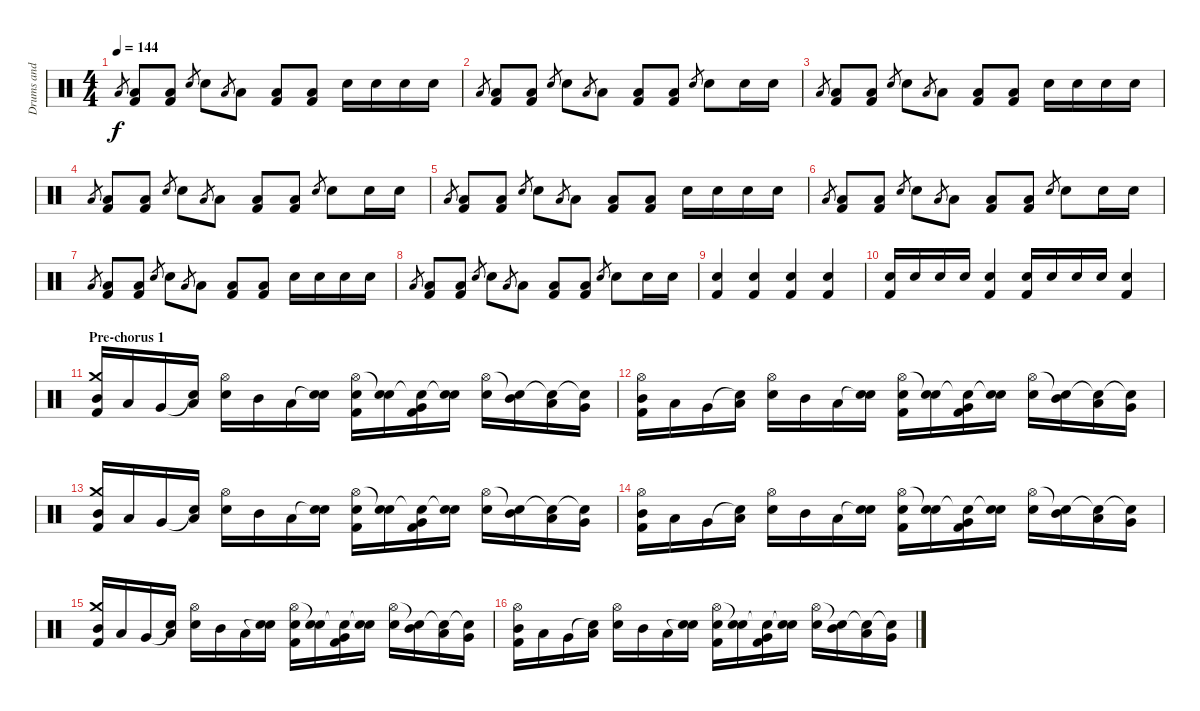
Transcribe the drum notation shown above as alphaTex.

\track ("Drums and Percussion" "Drums and ") {instrument percussion}
\staff {score}
\articulation defaults
\ts (4 4)
\tempo 144
\clef neutral
\ks c "Low Floor Tom (hit)".8{gr dy f}
("Low Floor Tom (hit)" "Kick (hit) 2").8 ("Low Floor Tom (hit)" "Kick (hit) 2").8 "Electric Snare (hit)".8{gr} "Electric Snare (hit)".8 "Low Floor Tom (hit)".8{gr} "Low Floor Tom (hit)".8 ("Low Floor Tom (hit)" "Kick (hit) 2").8 ("Low Floor Tom (hit)" "Kick (hit) 2").8 "Electric Snare (hit)".16 "Electric Snare (hit)".16 "Electric Snare (hit)".16 "Electric Snare (hit)".16 |
"Low Floor Tom (hit)".8{gr} ("Low Floor Tom (hit)" "Kick (hit) 2").8 ("Low Floor Tom (hit)" "Kick (hit) 2").8 "Electric Snare (hit)".8{gr} "Electric Snare (hit)".8 "Low Floor Tom (hit)".8{gr} "Low Floor Tom (hit)".8 ("Low Floor Tom (hit)" "Kick (hit) 2").8 ("Low Floor Tom (hit)" "Kick (hit) 2").8 "Electric Snare (hit)".8{gr} "Electric Snare (hit)".8 "Electric Snare (hit)".16 "Electric Snare (hit)".16 |
"Low Floor Tom (hit)".8{gr} ("Low Floor Tom (hit)" "Kick (hit) 2").8 ("Low Floor Tom (hit)" "Kick (hit) 2").8 "Electric Snare (hit)".8{gr} "Electric Snare (hit)".8 "Low Floor Tom (hit)".8{gr} "Low Floor Tom (hit)".8 ("Low Floor Tom (hit)" "Kick (hit) 2").8 ("Low Floor Tom (hit)" "Kick (hit) 2").8 "Electric Snare (hit)".16 "Electric Snare (hit)".16 "Electric Snare (hit)".16 "Electric Snare (hit)".16 |
"Low Floor Tom (hit)".8{gr} ("Low Floor Tom (hit)" "Kick (hit) 2").8 ("Low Floor Tom (hit)" "Kick (hit) 2").8 "Electric Snare (hit)".8{gr} "Electric Snare (hit)".8 "Low Floor Tom (hit)".8{gr} "Low Floor Tom (hit)".8 ("Low Floor Tom (hit)" "Kick (hit) 2").8 ("Low Floor Tom (hit)" "Kick (hit) 2").8 "Electric Snare (hit)".8{gr} "Electric Snare (hit)".8 "Electric Snare (hit)".16 "Electric Snare (hit)".16 |
"Low Floor Tom (hit)".8{gr} ("Low Floor Tom (hit)" "Kick (hit) 2").8 ("Low Floor Tom (hit)" "Kick (hit) 2").8 "Electric Snare (hit)".8{gr} "Electric Snare (hit)".8 "Low Floor Tom (hit)".8{gr} "Low Floor Tom (hit)".8 ("Low Floor Tom (hit)" "Kick (hit) 2").8 ("Low Floor Tom (hit)" "Kick (hit) 2").8 "Electric Snare (hit)".16 "Electric Snare (hit)".16 "Electric Snare (hit)".16 "Electric Snare (hit)".16 |
"Low Floor Tom (hit)".8{gr} ("Low Floor Tom (hit)" "Kick (hit) 2").8 ("Low Floor Tom (hit)" "Kick (hit) 2").8 "Electric Snare (hit)".8{gr} "Electric Snare (hit)".8 "Low Floor Tom (hit)".8{gr} "Low Floor Tom (hit)".8 ("Low Floor Tom (hit)" "Kick (hit) 2").8 ("Low Floor Tom (hit)" "Kick (hit) 2").8 "Electric Snare (hit)".8{gr} "Electric Snare (hit)".8 "Electric Snare (hit)".16 "Electric Snare (hit)".16 |
"Low Floor Tom (hit)".8{gr} ("Low Floor Tom (hit)" "Kick (hit) 2").8 ("Low Floor Tom (hit)" "Kick (hit) 2").8 "Electric Snare (hit)".8{gr} "Electric Snare (hit)".8 "Low Floor Tom (hit)".8{gr} "Low Floor Tom (hit)".8 ("Low Floor Tom (hit)" "Kick (hit) 2").8 ("Low Floor Tom (hit)" "Kick (hit) 2").8 "Electric Snare (hit)".16 "Electric Snare (hit)".16 "Electric Snare (hit)".16 "Electric Snare (hit)".16 |
"Low Floor Tom (hit)".8{gr} ("Low Floor Tom (hit)" "Kick (hit) 2").8 ("Low Floor Tom (hit)" "Kick (hit) 2").8 "Electric Snare (hit)".8{gr} "Electric Snare (hit)".8 "Low Floor Tom (hit)".8{gr} "Low Floor Tom (hit)".8 ("Low Floor Tom (hit)" "Kick (hit) 2").8 ("Low Floor Tom (hit)" "Kick (hit) 2").8 "Electric Snare (hit)".8{gr} "Electric Snare (hit)".8 "Electric Snare (hit)".16 "Electric Snare (hit)".16 |
("Electric Snare (hit)" "Kick (hit) 2").4 ("Electric Snare (hit)" "Kick (hit) 2").4 ("Electric Snare (hit)" "Kick (hit) 2").4 ("Electric Snare (hit)" "Kick (hit) 2").4 |
("Electric Snare (hit)" "Kick (hit) 2").16 "Electric Snare (hit)".16 "Electric Snare (hit)".16 "Electric Snare (hit)".16 ("Electric Snare (hit)" "Kick (hit) 2").4 ("Electric Snare (hit)" "Kick (hit) 2").16 "Electric Snare (hit)".16 "Electric Snare (hit)".16 "Electric Snare (hit)".16 ("Electric Snare (hit)" "Kick (hit) 2").4 |
\section ("" "Pre-chorus 1")
("Crash medium (hit)" "Mid Tom (hit)" "Kick (hit) 2").16 "Low Tom (hit)".16 "Very Low Tom (hit)".16 ("Snare (hit)"{t} "Low Floor Tom (hit)").16 ("Hi-Hat (open)" "Electric Snare (hit)").16 "Mid Tom (hit)".16 "Low Tom (hit)".16 ("Snare (hit)"{t} "Electric Snare (hit)").16 ("Hi-Hat (open)" "Electric Snare (hit)" "Kick (hit) 2").16 ("Snare (hit)"{t} "Electric Snare (hit)").16 ("Snare (hit)"{t} "Very Low Tom (hit)" "Kick (hit) 2").16 ("Snare (hit)"{t} "Electric Snare (hit)").16 ("Hi-Hat (open)" "Electric Snare (hit)").16 ("Snare (hit)"{t} "Mid Tom (hit)").16 ("Snare (hit)"{t} "Low Tom (hit)").16 ("Snare (hit)"{t} "Very Low Tom (hit)").16 |
("Hi-Hat (open)" "Mid Tom (hit)" "Kick (hit) 2").16 "Low Tom (hit)".16 "Very Low Tom (hit)".16 ("Snare (hit)"{t} "Low Floor Tom (hit)").16 ("Hi-Hat (open)" "Electric Snare (hit)").16 "Mid Tom (hit)".16 "Low Tom (hit)".16 ("Snare (hit)"{t} "Electric Snare (hit)").16 ("Hi-Hat (open)" "Electric Snare (hit)" "Kick (hit) 2").16 ("Snare (hit)"{t} "Electric Snare (hit)").16 ("Snare (hit)"{t} "Very Low Tom (hit)" "Kick (hit) 2").16 ("Snare (hit)"{t} "Electric Snare (hit)").16 ("Hi-Hat (open)" "Electric Snare (hit)").16 ("Snare (hit)"{t} "Mid Tom (hit)").16 ("Snare (hit)"{t} "Low Tom (hit)").16 ("Snare (hit)"{t} "Very Low Tom (hit)").16 |
("Crash medium (hit)" "Mid Tom (hit)" "Kick (hit) 2").16 "Low Tom (hit)".16 "Very Low Tom (hit)".16 ("Snare (hit)"{t} "Low Floor Tom (hit)").16 ("Hi-Hat (open)" "Electric Snare (hit)").16 "Mid Tom (hit)".16 "Low Tom (hit)".16 ("Snare (hit)"{t} "Electric Snare (hit)").16 ("Hi-Hat (open)" "Electric Snare (hit)" "Kick (hit) 2").16 ("Snare (hit)"{t} "Electric Snare (hit)").16 ("Snare (hit)"{t} "Very Low Tom (hit)" "Kick (hit) 2").16 ("Snare (hit)"{t} "Electric Snare (hit)").16 ("Hi-Hat (open)" "Electric Snare (hit)").16 ("Snare (hit)"{t} "Mid Tom (hit)").16 ("Snare (hit)"{t} "Low Tom (hit)").16 ("Snare (hit)"{t} "Very Low Tom (hit)").16 |
("Hi-Hat (open)" "Mid Tom (hit)" "Kick (hit) 2").16 "Low Tom (hit)".16 "Very Low Tom (hit)".16 ("Snare (hit)"{t} "Low Floor Tom (hit)").16 ("Hi-Hat (open)" "Electric Snare (hit)").16 "Mid Tom (hit)".16 "Low Tom (hit)".16 ("Snare (hit)"{t} "Electric Snare (hit)").16 ("Hi-Hat (open)" "Electric Snare (hit)" "Kick (hit) 2").16 ("Snare (hit)"{t} "Electric Snare (hit)").16 ("Snare (hit)"{t} "Very Low Tom (hit)" "Kick (hit) 2").16 ("Snare (hit)"{t} "Electric Snare (hit)").16 ("Hi-Hat (open)" "Electric Snare (hit)").16 ("Snare (hit)"{t} "Mid Tom (hit)").16 ("Snare (hit)"{t} "Low Tom (hit)").16 ("Snare (hit)"{t} "Very Low Tom (hit)").16 |
("Crash medium (hit)" "Mid Tom (hit)" "Kick (hit) 2").16 "Low Tom (hit)".16 "Very Low Tom (hit)".16 ("Snare (hit)"{t} "Low Floor Tom (hit)").16 ("Hi-Hat (open)" "Electric Snare (hit)").16 "Mid Tom (hit)".16 "Low Tom (hit)".16 ("Snare (hit)"{t} "Electric Snare (hit)").16 ("Hi-Hat (open)" "Electric Snare (hit)" "Kick (hit) 2").16 ("Snare (hit)"{t} "Electric Snare (hit)").16 ("Snare (hit)"{t} "Very Low Tom (hit)" "Kick (hit) 2").16 ("Snare (hit)"{t} "Electric Snare (hit)").16 ("Hi-Hat (open)" "Electric Snare (hit)").16 ("Snare (hit)"{t} "Mid Tom (hit)").16 ("Snare (hit)"{t} "Low Tom (hit)").16 ("Snare (hit)"{t} "Very Low Tom (hit)").16 |
("Hi-Hat (open)" "Mid Tom (hit)" "Kick (hit) 2").16 "Low Tom (hit)".16 "Very Low Tom (hit)".16 ("Snare (hit)"{t} "Low Floor Tom (hit)").16 ("Hi-Hat (open)" "Electric Snare (hit)").16 "Mid Tom (hit)".16 "Low Tom (hit)".16 ("Snare (hit)"{t} "Electric Snare (hit)").16 ("Hi-Hat (open)" "Electric Snare (hit)" "Kick (hit) 2").16 ("Snare (hit)"{t} "Electric Snare (hit)").16 ("Snare (hit)"{t} "Very Low Tom (hit)" "Kick (hit) 2").16 ("Snare (hit)"{t} "Electric Snare (hit)").16 ("Hi-Hat (open)" "Electric Snare (hit)").16 ("Snare (hit)"{t} "Mid Tom (hit)").16 ("Snare (hit)"{t} "Low Tom (hit)").16 ("Snare (hit)"{t} "Very Low Tom (hit)").16
